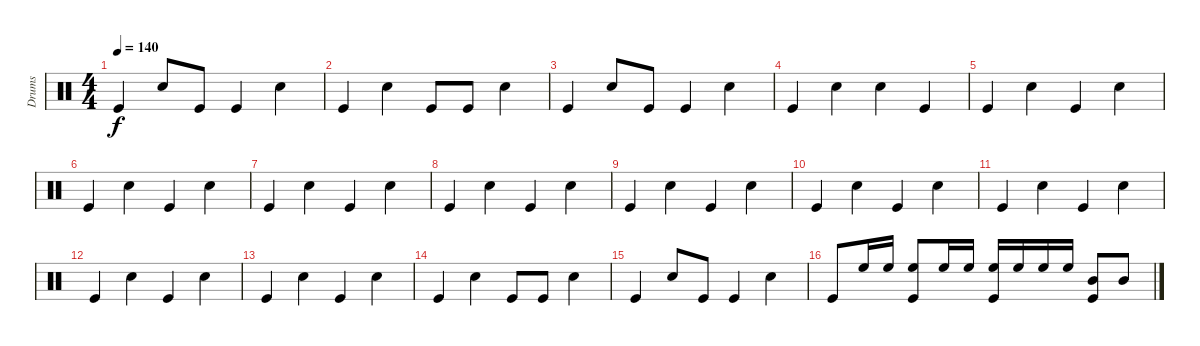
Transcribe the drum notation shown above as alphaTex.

\track ("Drums" "Drums") {instrument percussion}
\staff {score}
\articulation defaults
\ts (4 4)
\tempo 140
\clef neutral
\ks c "Kick (hit)".4{dy f} "Snare (hit) 2".8 "Kick (hit)".8 "Kick (hit)".4 "Snare (hit) 2".4
|
"Kick (hit)".4 "Snare (hit) 2".4 "Kick (hit)".8 "Kick (hit)".8 "Snare (hit) 2".4 |
"Kick (hit)".4 "Snare (hit) 2".8 "Kick (hit)".8 "Kick (hit)".4 "Snare (hit) 2".4 |
"Kick (hit)".4 "Snare (hit) 2".4 "Snare (hit) 2".4 "Kick (hit)".4 |
"Kick (hit)".4 "Snare (hit) 2".4 "Kick (hit)".4 "Snare (hit) 2".4 |
"Kick (hit)".4 "Snare (hit) 2".4 "Kick (hit)".4 "Snare (hit) 2".4 |
"Kick (hit)".4 "Snare (hit) 2".4 "Kick (hit)".4 "Snare (hit) 2".4 |
"Kick (hit)".4 "Snare (hit) 2".4 "Kick (hit)".4 "Snare (hit) 2".4 |
"Kick (hit)".4 "Snare (hit) 2".4 "Kick (hit)".4 "Snare (hit) 2".4 |
"Kick (hit)".4 "Snare (hit) 2".4 "Kick (hit)".4 "Snare (hit) 2".4 |
"Kick (hit)".4 "Snare (hit) 2".4 "Kick (hit)".4 "Snare (hit) 2".4 |
"Kick (hit)".4 "Snare (hit) 2".4 "Kick (hit)".4 "Snare (hit) 2".4 |
"Kick (hit)".4 "Snare (hit) 2".4 "Kick (hit)".4 "Snare (hit) 2".4 |
"Kick (hit)".4 "Snare (hit) 2".4 "Kick (hit)".8 "Kick (hit)".8 "Snare (hit) 2".4 |
"Kick (hit)".4 "Snare (hit) 2".8 "Kick (hit)".8 "Kick (hit)".4 "Snare (hit) 2".4 |
"Kick (hit)".8 "High Floor Tom (hit)".16 "High Floor Tom (hit)".16 ("High Floor Tom (hit)" "Kick (hit)").8 "High Floor Tom (hit)".16 "High Floor Tom (hit)".16 ("High Floor Tom (hit)" "Kick (hit)").16 "High Floor Tom (hit)".16 "High Floor Tom (hit)".16 "High Floor Tom (hit)".16 ("Mid Tom (hit)" "Kick (hit)").8 "Mid Tom (hit)".8
